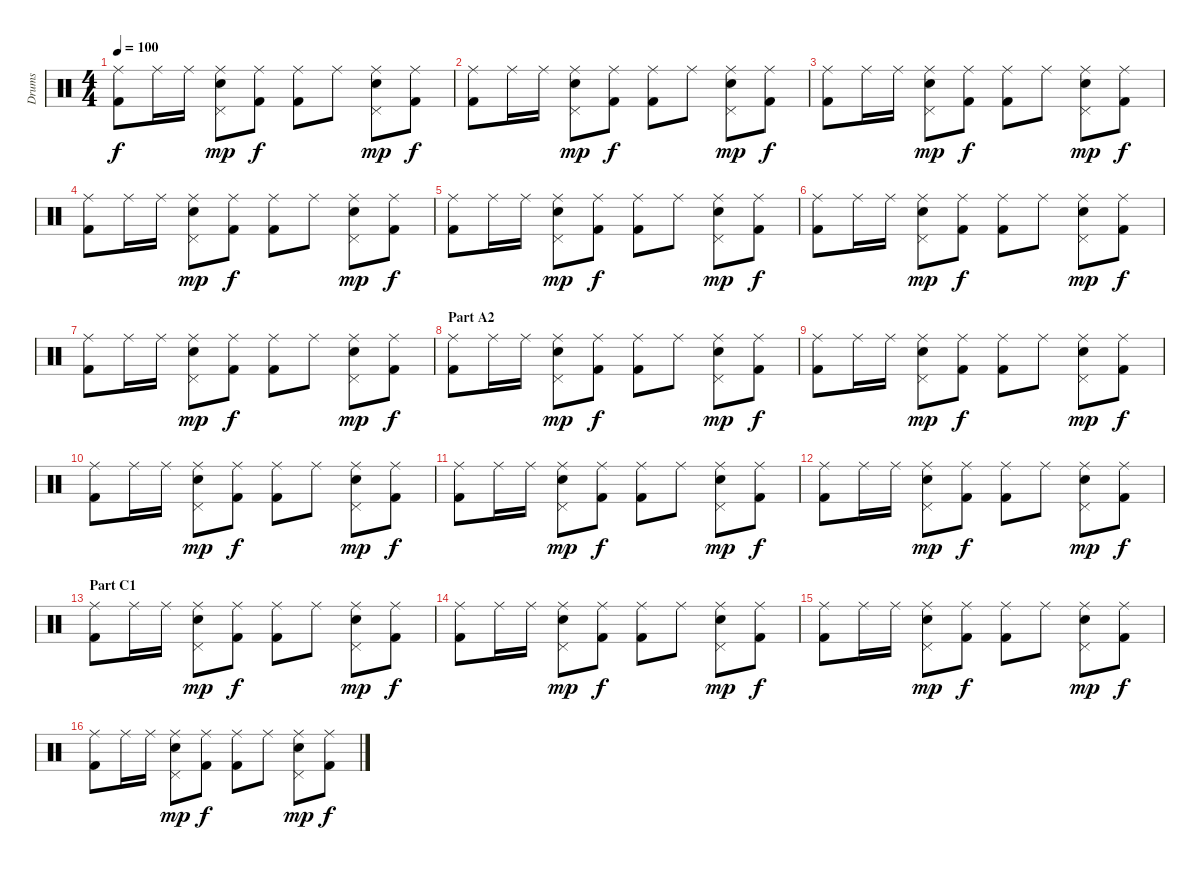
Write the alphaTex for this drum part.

\track ("Drums" "Drums") {instrument percussion}
\staff {score}
\articulation defaults
\ts (4 4)
\tempo 100
\clef neutral
\ks c
("Ride (middle)" "Kick (hit) 2").8{dy f} "Ride (middle)".16 "Ride (middle)".16 ("Ride (middle)" "Pedal Hi-Hat (hit)" "Electric Snare (hit)").8{dy mp} ("Ride (middle)" "Kick (hit) 2").8{dy f} ("Ride (middle)" "Kick (hit) 2").8 "Ride (middle)".8 ("Ride (middle)" "Pedal Hi-Hat (hit)" "Electric Snare (hit)").8{dy mp} ("Ride (middle)" "Kick (hit) 2").8{dy f} |
("Ride (middle)" "Kick (hit) 2").8 "Ride (middle)".16 "Ride (middle)".16 ("Ride (middle)" "Pedal Hi-Hat (hit)" "Electric Snare (hit)").8{dy mp} ("Ride (middle)" "Kick (hit) 2").8{dy f} ("Ride (middle)" "Kick (hit) 2").8 "Ride (middle)".8 ("Ride (middle)" "Pedal Hi-Hat (hit)" "Electric Snare (hit)").8{dy mp} ("Ride (middle)" "Kick (hit) 2").8{dy f} |
("Ride (middle)" "Kick (hit) 2").8 "Ride (middle)".16 "Ride (middle)".16 ("Ride (middle)" "Pedal Hi-Hat (hit)" "Electric Snare (hit)").8{dy mp} ("Ride (middle)" "Kick (hit) 2").8{dy f} ("Ride (middle)" "Kick (hit) 2").8 "Ride (middle)".8 ("Ride (middle)" "Pedal Hi-Hat (hit)" "Electric Snare (hit)").8{dy mp} ("Ride (middle)" "Kick (hit) 2").8{dy f} |
("Ride (middle)" "Kick (hit) 2").8 "Ride (middle)".16 "Ride (middle)".16 ("Ride (middle)" "Pedal Hi-Hat (hit)" "Electric Snare (hit)").8{dy mp} ("Ride (middle)" "Kick (hit) 2").8{dy f} ("Ride (middle)" "Kick (hit) 2").8 "Ride (middle)".8 ("Ride (middle)" "Pedal Hi-Hat (hit)" "Electric Snare (hit)").8{dy mp} ("Ride (middle)" "Kick (hit) 2").8{dy f} |
("Ride (middle)" "Kick (hit) 2").8 "Ride (middle)".16 "Ride (middle)".16 ("Ride (middle)" "Pedal Hi-Hat (hit)" "Electric Snare (hit)").8{dy mp} ("Ride (middle)" "Kick (hit) 2").8{dy f} ("Ride (middle)" "Kick (hit) 2").8 "Ride (middle)".8 ("Ride (middle)" "Pedal Hi-Hat (hit)" "Electric Snare (hit)").8{dy mp} ("Ride (middle)" "Kick (hit) 2").8{dy f} |
("Ride (middle)" "Kick (hit) 2").8 "Ride (middle)".16 "Ride (middle)".16 ("Ride (middle)" "Pedal Hi-Hat (hit)" "Electric Snare (hit)").8{dy mp} ("Ride (middle)" "Kick (hit) 2").8{dy f} ("Ride (middle)" "Kick (hit) 2").8 "Ride (middle)".8 ("Ride (middle)" "Pedal Hi-Hat (hit)" "Electric Snare (hit)").8{dy mp} ("Ride (middle)" "Kick (hit) 2").8{dy f} |
("Ride (middle)" "Kick (hit) 2").8 "Ride (middle)".16 "Ride (middle)".16 ("Ride (middle)" "Pedal Hi-Hat (hit)" "Electric Snare (hit)").8{dy mp} ("Ride (middle)" "Kick (hit) 2").8{dy f} ("Ride (middle)" "Kick (hit) 2").8 "Ride (middle)".8 ("Ride (middle)" "Pedal Hi-Hat (hit)" "Electric Snare (hit)").8{dy mp} ("Ride (middle)" "Kick (hit) 2").8{dy f} |
\section ("" "Part A2")
("Ride (middle)" "Kick (hit) 2").8 "Ride (middle)".16 "Ride (middle)".16 ("Ride (middle)" "Pedal Hi-Hat (hit)" "Electric Snare (hit)").8{dy mp} ("Ride (middle)" "Kick (hit) 2").8{dy f} ("Ride (middle)" "Kick (hit) 2").8 "Ride (middle)".8 ("Ride (middle)" "Pedal Hi-Hat (hit)" "Electric Snare (hit)").8{dy mp} ("Ride (middle)" "Kick (hit) 2").8{dy f} |
("Ride (middle)" "Kick (hit) 2").8 "Ride (middle)".16 "Ride (middle)".16 ("Ride (middle)" "Pedal Hi-Hat (hit)" "Electric Snare (hit)").8{dy mp} ("Ride (middle)" "Kick (hit) 2").8{dy f} ("Ride (middle)" "Kick (hit) 2").8 "Ride (middle)".8 ("Ride (middle)" "Pedal Hi-Hat (hit)" "Electric Snare (hit)").8{dy mp} ("Ride (middle)" "Kick (hit) 2").8{dy f} |
("Ride (middle)" "Kick (hit) 2").8 "Ride (middle)".16 "Ride (middle)".16 ("Ride (middle)" "Pedal Hi-Hat (hit)" "Electric Snare (hit)").8{dy mp} ("Ride (middle)" "Kick (hit) 2").8{dy f} ("Ride (middle)" "Kick (hit) 2").8 "Ride (middle)".8 ("Ride (middle)" "Pedal Hi-Hat (hit)" "Electric Snare (hit)").8{dy mp} ("Ride (middle)" "Kick (hit) 2").8{dy f} |
("Ride (middle)" "Kick (hit) 2").8 "Ride (middle)".16 "Ride (middle)".16 ("Ride (middle)" "Pedal Hi-Hat (hit)" "Electric Snare (hit)").8{dy mp} ("Ride (middle)" "Kick (hit) 2").8{dy f} ("Ride (middle)" "Kick (hit) 2").8 "Ride (middle)".8 ("Ride (middle)" "Pedal Hi-Hat (hit)" "Electric Snare (hit)").8{dy mp} ("Ride (middle)" "Kick (hit) 2").8{dy f} |
("Ride (middle)" "Kick (hit) 2").8 "Ride (middle)".16 "Ride (middle)".16 ("Ride (middle)" "Pedal Hi-Hat (hit)" "Electric Snare (hit)").8{dy mp} ("Ride (middle)" "Kick (hit) 2").8{dy f} ("Ride (middle)" "Kick (hit) 2").8 "Ride (middle)".8 ("Ride (middle)" "Pedal Hi-Hat (hit)" "Electric Snare (hit)").8{dy mp} ("Ride (middle)" "Kick (hit) 2").8{dy f} |
\section ("" "Part C1")
("Ride (middle)" "Kick (hit) 2").8 "Ride (middle)".16 "Ride (middle)".16 ("Ride (middle)" "Pedal Hi-Hat (hit)" "Electric Snare (hit)").8{dy mp} ("Ride (middle)" "Kick (hit) 2").8{dy f} ("Ride (middle)" "Kick (hit) 2").8 "Ride (middle)".8 ("Ride (middle)" "Pedal Hi-Hat (hit)" "Electric Snare (hit)").8{dy mp} ("Ride (middle)" "Kick (hit) 2").8{dy f} |
("Ride (middle)" "Kick (hit) 2").8 "Ride (middle)".16 "Ride (middle)".16 ("Ride (middle)" "Pedal Hi-Hat (hit)" "Electric Snare (hit)").8{dy mp} ("Ride (middle)" "Kick (hit) 2").8{dy f} ("Ride (middle)" "Kick (hit) 2").8 "Ride (middle)".8 ("Ride (middle)" "Pedal Hi-Hat (hit)" "Electric Snare (hit)").8{dy mp} ("Ride (middle)" "Kick (hit) 2").8{dy f} |
("Ride (middle)" "Kick (hit) 2").8 "Ride (middle)".16 "Ride (middle)".16 ("Ride (middle)" "Pedal Hi-Hat (hit)" "Electric Snare (hit)").8{dy mp} ("Ride (middle)" "Kick (hit) 2").8{dy f} ("Ride (middle)" "Kick (hit) 2").8 "Ride (middle)".8 ("Ride (middle)" "Pedal Hi-Hat (hit)" "Electric Snare (hit)").8{dy mp} ("Ride (middle)" "Kick (hit) 2").8{dy f} |
("Ride (middle)" "Kick (hit) 2").8 "Ride (middle)".16 "Ride (middle)".16 ("Ride (middle)" "Pedal Hi-Hat (hit)" "Electric Snare (hit)").8{dy mp} ("Ride (middle)" "Kick (hit) 2").8{dy f} ("Ride (middle)" "Kick (hit) 2").8 "Ride (middle)".8 ("Ride (middle)" "Pedal Hi-Hat (hit)" "Electric Snare (hit)").8{dy mp} ("Ride (middle)" "Kick (hit) 2").8{dy f}
